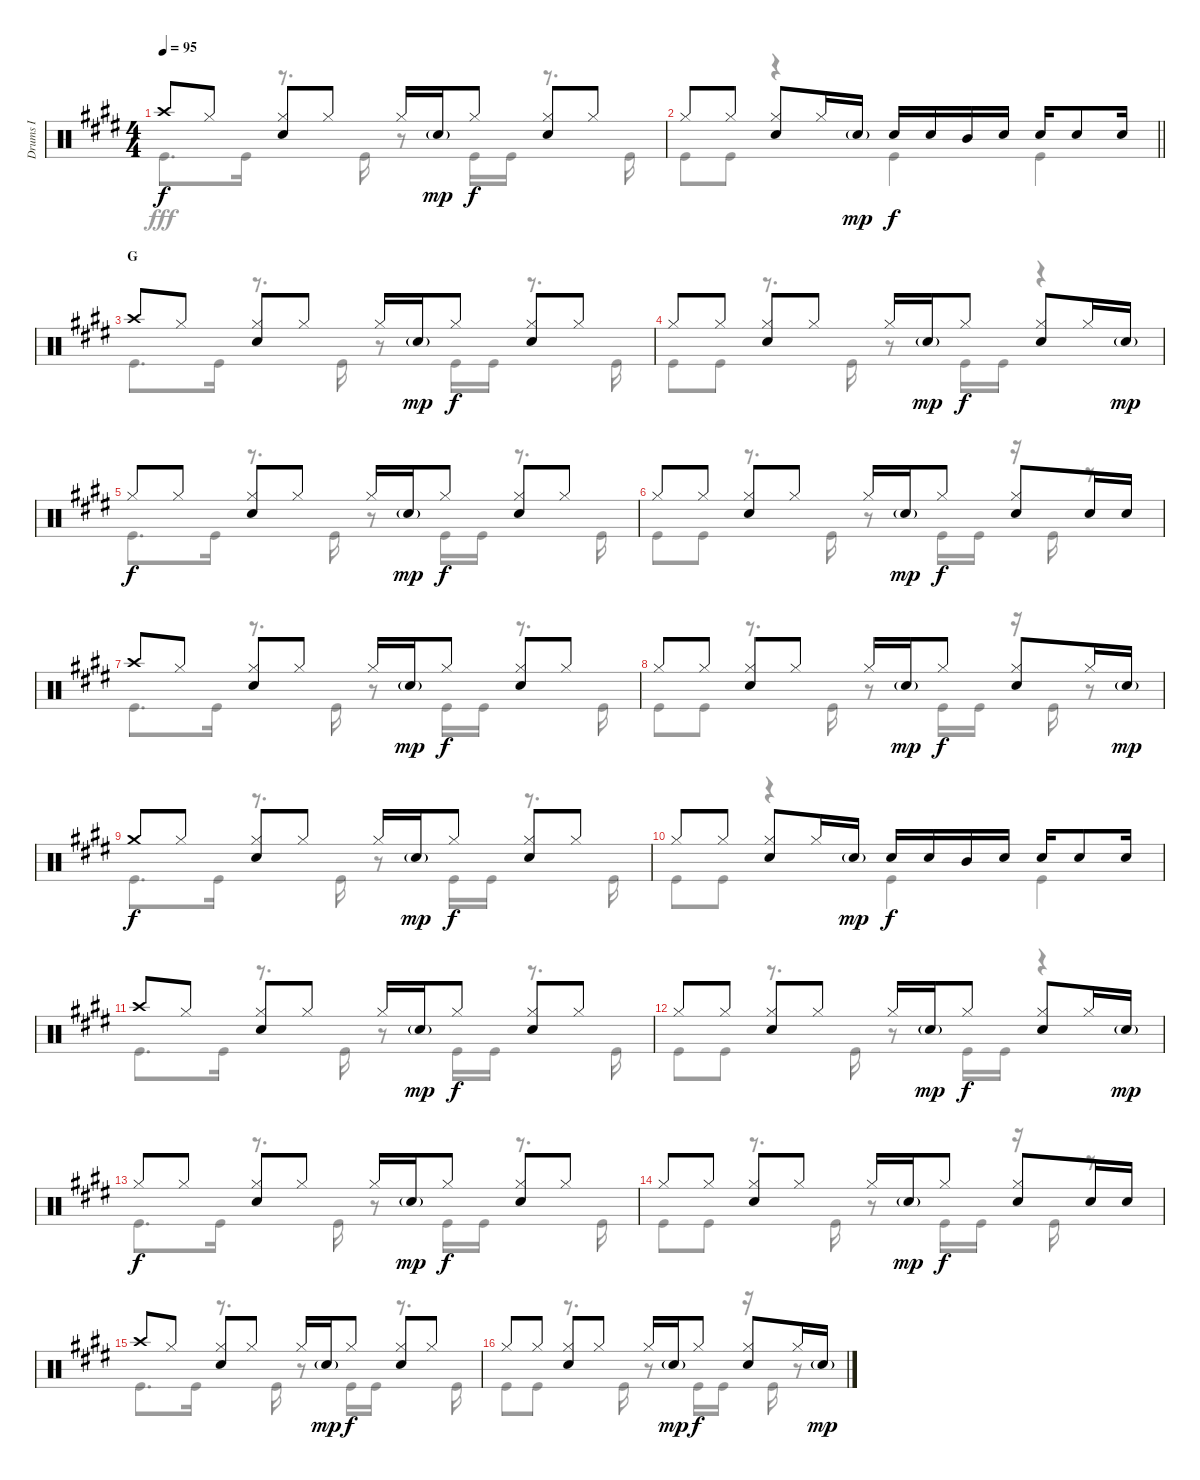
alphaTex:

\track ("Drums I" "Drums I") {instrument percussion}
\staff {score}
\articulation defaults
\voice
\ts (4 4)
\tempo 95
\clef neutral
\ks e "Crash high (hit)".8{dy f} "Hi-Hat (closed)".8
("Hi-Hat (closed)" "Snare (hit) 2").8 "Hi-Hat (closed)".8 "Hi-Hat (closed)".16 "Snare (hit) 2"{g}.16{dy mp} "Hi-Hat (closed)".8{dy f} ("Hi-Hat (closed)" "Snare (hit) 2").8 "Hi-Hat (closed)".8 |
\barLineRight lightlight "Hi-Hat (closed)".8 "Hi-Hat (closed)".8
("Hi-Hat (closed)" "Snare (hit) 2").8 "Hi-Hat (closed)".16 "Snare (hit) 2"{g}.16{dy mp} "Snare (hit) 2".16{dy f} "Snare (hit) 2".16 "Mid Tom (hit)".16 "Snare (hit) 2".16 "Snare (hit) 2".16 "Snare (hit) 2".8 "Snare (hit) 2".16 |
\section ("" "G")
"Crash high (hit)".8 "Hi-Hat (closed)".8 ("Hi-Hat (closed)" "Snare (hit) 2").8 "Hi-Hat (closed)".8 "Hi-Hat (closed)".16 "Snare (hit) 2"{g}.16{dy mp} "Hi-Hat (closed)".8{dy f} ("Hi-Hat (closed)" "Snare (hit) 2").8 "Hi-Hat (closed)".8 |
"Hi-Hat (closed)".8 "Hi-Hat (closed)".8 ("Hi-Hat (closed)" "Snare (hit) 2").8 "Hi-Hat (closed)".8 "Hi-Hat (closed)".16 "Snare (hit) 2"{g}.16{dy mp} "Hi-Hat (closed)".8{dy f} ("Hi-Hat (closed)" "Snare (hit) 2").8 "Hi-Hat (closed)".16 "Snare (hit) 2"{g}.16{dy mp} |
"Hi-Hat (closed)".8{dy f} "Hi-Hat (closed)".8 ("Hi-Hat (closed)" "Snare (hit) 2").8 "Hi-Hat (closed)".8 "Hi-Hat (closed)".16 "Snare (hit) 2"{g}.16{dy mp} "Hi-Hat (closed)".8{dy f} ("Hi-Hat (closed)" "Snare (hit) 2").8 "Hi-Hat (closed)".8 |
"Hi-Hat (closed)".8 "Hi-Hat (closed)".8 ("Hi-Hat (closed)" "Snare (hit) 2").8 "Hi-Hat (closed)".8 "Hi-Hat (closed)".16 "Snare (hit) 2"{g}.16{dy mp} "Hi-Hat (closed)".8{dy f} ("Hi-Hat (closed)" "Snare (hit) 2").8 "Snare (hit) 2".16 "Snare (hit) 2".16 |
"Crash high (hit)".8 "Hi-Hat (closed)".8 ("Hi-Hat (closed)" "Snare (hit) 2").8 "Hi-Hat (closed)".8 "Hi-Hat (closed)".16 "Snare (hit) 2"{g}.16{dy mp} "Hi-Hat (closed)".8{dy f} ("Hi-Hat (closed)" "Snare (hit) 2").8 "Hi-Hat (closed)".8 |
"Hi-Hat (closed)".8 "Hi-Hat (closed)".8 ("Hi-Hat (closed)" "Snare (hit) 2").8 "Hi-Hat (closed)".8 "Hi-Hat (closed)".16 "Snare (hit) 2"{g}.16{dy mp} "Hi-Hat (closed)".8{dy f} ("Hi-Hat (closed)" "Snare (hit) 2").8 "Hi-Hat (closed)".16 "Snare (hit) 2"{g}.16{dy mp} |
"Crash medium (hit)".8{dy f} "Hi-Hat (closed)".8 ("Hi-Hat (closed)" "Snare (hit) 2").8 "Hi-Hat (closed)".8 "Hi-Hat (closed)".16 "Snare (hit) 2"{g}.16{dy mp} "Hi-Hat (closed)".8{dy f} ("Hi-Hat (closed)" "Snare (hit) 2").8 "Hi-Hat (closed)".8 |
"Hi-Hat (closed)".8 "Hi-Hat (closed)".8 ("Hi-Hat (closed)" "Snare (hit) 2").8 "Hi-Hat (closed)".16 "Snare (hit) 2"{g}.16{dy mp} "Snare (hit) 2".16{dy f} "Snare (hit) 2".16 "Mid Tom (hit)".16 "Snare (hit) 2".16 "Snare (hit) 2".16 "Snare (hit) 2".8 "Snare (hit) 2".16 |
"Crash high (hit)".8 "Hi-Hat (closed)".8 ("Hi-Hat (closed)" "Snare (hit) 2").8 "Hi-Hat (closed)".8 "Hi-Hat (closed)".16 "Snare (hit) 2"{g}.16{dy mp} "Hi-Hat (closed)".8{dy f} ("Hi-Hat (closed)" "Snare (hit) 2").8 "Hi-Hat (closed)".8 |
"Hi-Hat (closed)".8 "Hi-Hat (closed)".8 ("Hi-Hat (closed)" "Snare (hit) 2").8 "Hi-Hat (closed)".8 "Hi-Hat (closed)".16 "Snare (hit) 2"{g}.16{dy mp} "Hi-Hat (closed)".8{dy f} ("Hi-Hat (closed)" "Snare (hit) 2").8 "Hi-Hat (closed)".16 "Snare (hit) 2"{g}.16{dy mp} |
"Hi-Hat (closed)".8{dy f} "Hi-Hat (closed)".8 ("Hi-Hat (closed)" "Snare (hit) 2").8 "Hi-Hat (closed)".8 "Hi-Hat (closed)".16 "Snare (hit) 2"{g}.16{dy mp} "Hi-Hat (closed)".8{dy f} ("Hi-Hat (closed)" "Snare (hit) 2").8 "Hi-Hat (closed)".8 |
"Hi-Hat (closed)".8 "Hi-Hat (closed)".8 ("Hi-Hat (closed)" "Snare (hit) 2").8 "Hi-Hat (closed)".8 "Hi-Hat (closed)".16 "Snare (hit) 2"{g}.16{dy mp} "Hi-Hat (closed)".8{dy f} ("Hi-Hat (closed)" "Snare (hit) 2").8 "Snare (hit) 2".16 "Snare (hit) 2".16 |
"Crash high (hit)".8 "Hi-Hat (closed)".8 ("Hi-Hat (closed)" "Snare (hit) 2").8 "Hi-Hat (closed)".8 "Hi-Hat (closed)".16 "Snare (hit) 2"{g}.16{dy mp} "Hi-Hat (closed)".8{dy f} ("Hi-Hat (closed)" "Snare (hit) 2").8 "Hi-Hat (closed)".8 |
"Hi-Hat (closed)".8 "Hi-Hat (closed)".8 ("Hi-Hat (closed)" "Snare (hit) 2").8 "Hi-Hat (closed)".8 "Hi-Hat (closed)".16 "Snare (hit) 2"{g}.16{dy mp} "Hi-Hat (closed)".8{dy f} ("Hi-Hat (closed)" "Snare (hit) 2").8 "Hi-Hat (closed)".16 "Snare (hit) 2"{g}.16{dy mp}
\voice
\clef neutral
\ottava regular
\simile none
\ks e "Kick (hit)".8{d dy fff} "Kick (hit)".16
r.8{d} "Kick (hit)".16 r.8 "Kick (hit)".16 "Kick (hit)".16 r.8{d} "Kick (hit)".16 |
\barLineRight lightlight "Kick (hit)".8 "Kick (hit)".8
r.4 "Kick (hit)".4 "Kick (hit)".4 |
"Kick (hit)".8{d} "Kick (hit)".16 r.8{d} "Kick (hit)".16 r.8 "Kick (hit)".16 "Kick (hit)".16 r.8{d} "Kick (hit)".16 |
"Kick (hit)".8 "Kick (hit)".8 r.8{d} "Kick (hit)".16 r.8 "Kick (hit)".16 "Kick (hit)".16 r.4 |
"Kick (hit)".8{d} "Kick (hit)".16 r.8{d} "Kick (hit)".16 r.8 "Kick (hit)".16 "Kick (hit)".16 r.8{d} "Kick (hit)".16 |
"Kick (hit)".8 "Kick (hit)".8 r.8{d} "Kick (hit)".16 r.8 "Kick (hit)".16 "Kick (hit)".16 r.16 "Kick (hit)".16 r.8 |
"Kick (hit)".8{d} "Kick (hit)".16 r.8{d} "Kick (hit)".16 r.8 "Kick (hit)".16 "Kick (hit)".16 r.8{d} "Kick (hit)".16 |
"Kick (hit)".8 "Kick (hit)".8 r.8{d} "Kick (hit)".16 r.8 "Kick (hit)".16 "Kick (hit)".16 r.16 "Kick (hit)".16 r.8 |
"Kick (hit)".8{d} "Kick (hit)".16 r.8{d} "Kick (hit)".16 r.8 "Kick (hit)".16 "Kick (hit)".16 r.8{d} "Kick (hit)".16 |
"Kick (hit)".8 "Kick (hit)".8 r.4 "Kick (hit)".4 "Kick (hit)".4 |
"Kick (hit)".8{d} "Kick (hit)".16 r.8{d} "Kick (hit)".16 r.8 "Kick (hit)".16 "Kick (hit)".16 r.8{d} "Kick (hit)".16 |
"Kick (hit)".8 "Kick (hit)".8 r.8{d} "Kick (hit)".16 r.8 "Kick (hit)".16 "Kick (hit)".16 r.4 |
"Kick (hit)".8{d} "Kick (hit)".16 r.8{d} "Kick (hit)".16 r.8 "Kick (hit)".16 "Kick (hit)".16 r.8{d} "Kick (hit)".16 |
"Kick (hit)".8 "Kick (hit)".8 r.8{d} "Kick (hit)".16 r.8 "Kick (hit)".16 "Kick (hit)".16 r.16 "Kick (hit)".16 r.8 |
"Kick (hit)".8{d} "Kick (hit)".16 r.8{d} "Kick (hit)".16 r.8 "Kick (hit)".16 "Kick (hit)".16 r.8{d} "Kick (hit)".16 |
"Kick (hit)".8 "Kick (hit)".8 r.8{d} "Kick (hit)".16 r.8 "Kick (hit)".16 "Kick (hit)".16 r.16 "Kick (hit)".16 r.8
